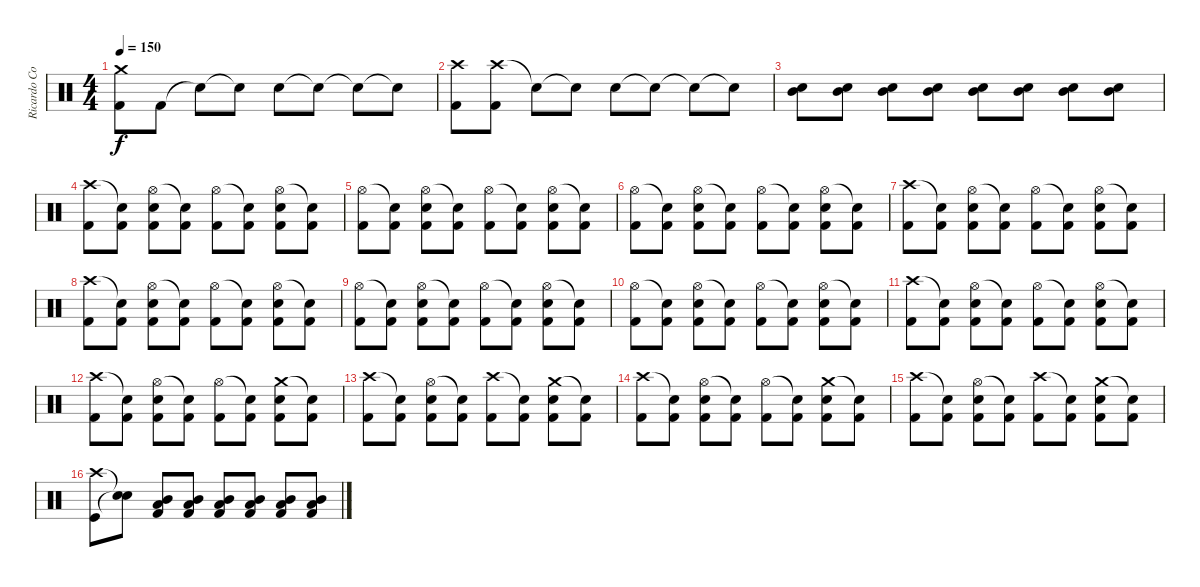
\track ("Ricardo Confessori" "Ricardo Co") {instrument percussion}
\staff {score}
\articulation defaults
\ts (4 4)
\tempo 150
\clef neutral
\ks c
("Crash medium (hit)" "Kick (hit) 2").8{dy f} "Kick (hit) 2".8 "Snare (hit)"{t}.8 "Snare (hit)"{t}.8 "Electric Snare (hit)".8 "Snare (hit)"{t}.8 "Snare (hit)"{t}.8 "Snare (hit)"{t}.8 |
("Crash high (hit)" "Kick (hit) 2").8 ("Crash high (hit)" "Kick (hit) 2").8 "Snare (hit)"{t}.8 "Snare (hit)"{t}.8 "Electric Snare (hit)".8 "Snare (hit)"{t}.8 "Snare (hit)"{t}.8 "Snare (hit)"{t}.8 |
("Electric Snare (hit)" "Mid Tom (hit)").8 ("Electric Snare (hit)" "Mid Tom (hit)").8 ("Electric Snare (hit)" "Mid Tom (hit)").8 ("Electric Snare (hit)" "Mid Tom (hit)").8 ("Electric Snare (hit)" "Mid Tom (hit)").8 ("Electric Snare (hit)" "Mid Tom (hit)").8 ("Electric Snare (hit)" "Mid Tom (hit)").8 ("Electric Snare (hit)" "Mid Tom (hit)").8 |
("Crash high (hit)" "Kick (hit) 2").8 ("Snare (hit)"{t} "Kick (hit) 2").8 ("Hi-Hat (open)" "Electric Snare (hit)" "Kick (hit) 2").8 ("Snare (hit)"{t} "Kick (hit) 2").8 ("Hi-Hat (open)" "Kick (hit) 2").8 ("Snare (hit)"{t} "Kick (hit) 2").8 ("Hi-Hat (open)" "Electric Snare (hit)" "Kick (hit) 2").8 ("Snare (hit)"{t} "Kick (hit) 2").8 |
("Hi-Hat (open)" "Kick (hit) 2").8 ("Snare (hit)"{t} "Kick (hit) 2").8 ("Hi-Hat (open)" "Electric Snare (hit)" "Kick (hit) 2").8 ("Snare (hit)"{t} "Kick (hit) 2").8 ("Hi-Hat (open)" "Kick (hit) 2").8 ("Snare (hit)"{t} "Kick (hit) 2").8 ("Hi-Hat (open)" "Electric Snare (hit)" "Kick (hit) 2").8 ("Snare (hit)"{t} "Kick (hit) 2").8 |
("Hi-Hat (open)" "Kick (hit) 2").8 ("Snare (hit)"{t} "Kick (hit) 2").8 ("Hi-Hat (open)" "Electric Snare (hit)" "Kick (hit) 2").8 ("Snare (hit)"{t} "Kick (hit) 2").8 ("Hi-Hat (open)" "Kick (hit) 2").8 ("Snare (hit)"{t} "Kick (hit) 2").8 ("Hi-Hat (open)" "Electric Snare (hit)" "Kick (hit) 2").8 ("Snare (hit)"{t} "Kick (hit) 2").8 |
("Crash high (hit)" "Kick (hit) 2").8 ("Snare (hit)"{t} "Kick (hit) 2").8 ("Hi-Hat (open)" "Electric Snare (hit)" "Kick (hit) 2").8 ("Snare (hit)"{t} "Kick (hit) 2").8 ("Hi-Hat (open)" "Kick (hit) 2").8 ("Snare (hit)"{t} "Kick (hit) 2").8 ("Hi-Hat (open)" "Electric Snare (hit)" "Kick (hit) 2").8 ("Snare (hit)"{t} "Kick (hit) 2").8 |
("Crash high (hit)" "Kick (hit) 2").8 ("Snare (hit)"{t} "Kick (hit) 2").8 ("Hi-Hat (open)" "Electric Snare (hit)" "Kick (hit) 2").8 ("Snare (hit)"{t} "Kick (hit) 2").8 ("Hi-Hat (open)" "Kick (hit) 2").8 ("Snare (hit)"{t} "Kick (hit) 2").8 ("Hi-Hat (open)" "Electric Snare (hit)" "Kick (hit) 2").8 ("Snare (hit)"{t} "Kick (hit) 2").8 |
("Hi-Hat (open)" "Kick (hit) 2").8 ("Snare (hit)"{t} "Kick (hit) 2").8 ("Hi-Hat (open)" "Electric Snare (hit)" "Kick (hit) 2").8 ("Snare (hit)"{t} "Kick (hit) 2").8 ("Hi-Hat (open)" "Kick (hit) 2").8 ("Snare (hit)"{t} "Kick (hit) 2").8 ("Hi-Hat (open)" "Electric Snare (hit)" "Kick (hit) 2").8 ("Snare (hit)"{t} "Kick (hit) 2").8 |
("Hi-Hat (open)" "Kick (hit) 2").8 ("Snare (hit)"{t} "Kick (hit) 2").8 ("Hi-Hat (open)" "Electric Snare (hit)" "Kick (hit) 2").8 ("Snare (hit)"{t} "Kick (hit) 2").8 ("Hi-Hat (open)" "Kick (hit) 2").8 ("Snare (hit)"{t} "Kick (hit) 2").8 ("Hi-Hat (open)" "Electric Snare (hit)" "Kick (hit) 2").8 ("Snare (hit)"{t} "Kick (hit) 2").8 |
("Crash high (hit)" "Kick (hit) 2").8 ("Snare (hit)"{t} "Kick (hit) 2").8 ("Hi-Hat (open)" "Electric Snare (hit)" "Kick (hit) 2").8 ("Snare (hit)"{t} "Kick (hit) 2").8 ("Hi-Hat (open)" "Kick (hit) 2").8 ("Snare (hit)"{t} "Kick (hit) 2").8 ("Hi-Hat (open)" "Electric Snare (hit)" "Kick (hit) 2").8 ("Snare (hit)"{t} "Kick (hit) 2").8 |
("Crash high (hit)" "Kick (hit) 2").8 ("Snare (hit)"{t} "Kick (hit) 2").8 ("Hi-Hat (open)" "Electric Snare (hit)" "Kick (hit) 2").8 ("Snare (hit)"{t} "Kick (hit) 2").8 ("Hi-Hat (open)" "Kick (hit) 2").8 ("Snare (hit)"{t} "Kick (hit) 2").8 ("Crash medium (hit)" "Electric Snare (hit)" "Kick (hit) 2").8 ("Snare (hit)"{t} "Kick (hit) 2").8 |
("Crash high (hit)" "Kick (hit) 2").8 ("Snare (hit)"{t} "Kick (hit) 2").8 ("Hi-Hat (open)" "Electric Snare (hit)" "Kick (hit) 2").8 ("Snare (hit)"{t} "Kick (hit) 2").8 ("Crash high (hit)" "Kick (hit) 2").8 ("Snare (hit)"{t} "Kick (hit) 2").8 ("Crash medium (hit)" "Electric Snare (hit)" "Kick (hit) 2").8 ("Snare (hit)"{t} "Kick (hit) 2").8 |
("Crash high (hit)" "Kick (hit) 2").8 ("Snare (hit)"{t} "Kick (hit) 2").8 ("Hi-Hat (open)" "Electric Snare (hit)" "Kick (hit) 2").8 ("Snare (hit)"{t} "Kick (hit) 2").8 ("Hi-Hat (open)" "Kick (hit) 2").8 ("Snare (hit)"{t} "Kick (hit) 2").8 ("Crash medium (hit)" "Electric Snare (hit)" "Kick (hit) 2").8 ("Snare (hit)"{t} "Kick (hit) 2").8 |
("Crash high (hit)" "Kick (hit) 2").8 ("Snare (hit)"{t} "Kick (hit) 2").8 ("Hi-Hat (open)" "Electric Snare (hit)" "Kick (hit) 2").8 ("Snare (hit)"{t} "Kick (hit) 2").8 ("Crash high (hit)" "Kick (hit) 2").8 ("Snare (hit)"{t} "Kick (hit) 2").8 ("Crash medium (hit)" "Electric Snare (hit)" "Kick (hit) 2").8 ("Snare (hit)"{t} "Kick (hit) 2").8 |
("Crash high (hit)" "Kick (hit)").8 ("Snare (hit)"{t} "Snare (hit)"{t}).8 ("Mid Tom (hit)" "Low Tom (hit)" "Kick (hit) 2").8 ("Mid Tom (hit)" "Low Tom (hit)" "Kick (hit) 2").8 ("Mid Tom (hit)" "Low Tom (hit)" "Kick (hit) 2").8 ("Mid Tom (hit)" "Low Tom (hit)" "Kick (hit) 2").8 ("Mid Tom (hit)" "Low Tom (hit)" "Kick (hit) 2").8 ("Mid Tom (hit)" "Low Tom (hit)" "Kick (hit) 2").8
